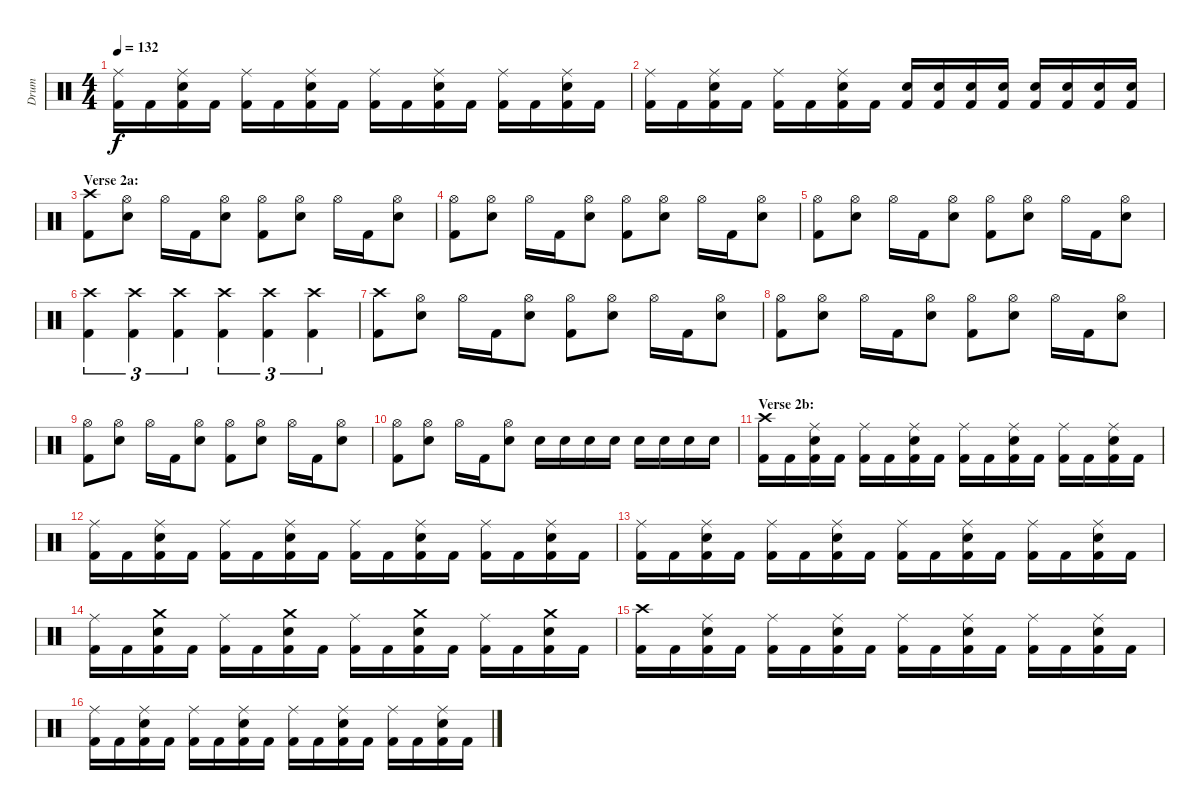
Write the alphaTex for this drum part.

\track ("Drum" "Drum") {instrument percussion}
\staff {score}
\articulation defaults
\ts (4 4)
\tempo 132
\clef neutral
\ks c
("Kick (hit) 2" "Ride (middle)").16{dy f} "Kick (hit) 2".16 ("Kick (hit) 2" "Snare (hit) 2" "Ride (middle)").16 "Kick (hit) 2".16 ("Kick (hit) 2" "Ride (middle)").16 "Kick (hit) 2".16 ("Kick (hit) 2" "Snare (hit) 2" "Ride (middle)").16 "Kick (hit) 2".16 ("Kick (hit) 2" "Ride (middle)").16 "Kick (hit) 2".16 ("Kick (hit) 2" "Snare (hit) 2" "Ride (middle)").16 "Kick (hit) 2".16 ("Kick (hit) 2" "Ride (middle)").16 "Kick (hit) 2".16 ("Kick (hit) 2" "Snare (hit) 2" "Ride (middle)").16 "Kick (hit) 2".16 |
("Kick (hit) 2" "Ride (middle)").16 "Kick (hit) 2".16 ("Kick (hit) 2" "Snare (hit) 2" "Ride (middle)").16 "Kick (hit) 2".16 ("Kick (hit) 2" "Ride (middle)").16 "Kick (hit) 2".16 ("Kick (hit) 2" "Snare (hit) 2" "Ride (middle)").16 "Kick (hit) 2".16 ("Kick (hit) 2" "Snare (hit) 2").16 ("Kick (hit) 2" "Snare (hit) 2").16 ("Kick (hit) 2" "Snare (hit) 2").16 ("Kick (hit) 2" "Snare (hit) 2").16 ("Kick (hit) 2" "Snare (hit) 2").16 ("Kick (hit) 2" "Snare (hit) 2").16 ("Kick (hit) 2" "Snare (hit) 2").16 ("Kick (hit) 2" "Snare (hit) 2").16 |
\section ("" "Verse 2a:")
("Kick (hit) 2" "Crash high (hit)").8 ("Snare (hit) 2" "Hi-Hat (open)").8 "Hi-Hat (open)".16 "Kick (hit) 2".16 ("Snare (hit) 2" "Hi-Hat (open)").8 ("Kick (hit) 2" "Hi-Hat (open)").8 ("Snare (hit) 2" "Hi-Hat (open)").8 "Hi-Hat (open)".16 "Kick (hit) 2".16 ("Snare (hit) 2" "Hi-Hat (open)").8 |
("Kick (hit) 2" "Hi-Hat (open)").8 ("Snare (hit) 2" "Hi-Hat (open)").8 "Hi-Hat (open)".16 "Kick (hit) 2".16 ("Snare (hit) 2" "Hi-Hat (open)").8 ("Kick (hit) 2" "Hi-Hat (open)").8 ("Snare (hit) 2" "Hi-Hat (open)").8 "Hi-Hat (open)".16 "Kick (hit) 2".16 ("Snare (hit) 2" "Hi-Hat (open)").8 |
("Kick (hit) 2" "Hi-Hat (open)").8 ("Snare (hit) 2" "Hi-Hat (open)").8 "Hi-Hat (open)".16 "Kick (hit) 2".16 ("Snare (hit) 2" "Hi-Hat (open)").8 ("Kick (hit) 2" "Hi-Hat (open)").8 ("Snare (hit) 2" "Hi-Hat (open)").8 "Hi-Hat (open)".16 "Kick (hit) 2".16 ("Snare (hit) 2" "Hi-Hat (open)").8 |
("Kick (hit) 2" "Crash high (hit)").4{tu (3 2)} ("Kick (hit) 2" "Crash high (hit)").4{tu (3 2)} ("Kick (hit) 2" "Crash high (hit)").4{tu (3 2)} ("Kick (hit) 2" "Crash high (hit)").4{tu (3 2)} ("Kick (hit) 2" "Crash high (hit)").4{tu (3 2)} ("Kick (hit) 2" "Crash high (hit)").4{tu (3 2)} |
("Kick (hit) 2" "Crash high (hit)").8 ("Snare (hit) 2" "Hi-Hat (open)").8 "Hi-Hat (open)".16 "Kick (hit) 2".16 ("Snare (hit) 2" "Hi-Hat (open)").8 ("Kick (hit) 2" "Hi-Hat (open)").8 ("Snare (hit) 2" "Hi-Hat (open)").8 "Hi-Hat (open)".16 "Kick (hit) 2".16 ("Snare (hit) 2" "Hi-Hat (open)").8 |
("Kick (hit) 2" "Hi-Hat (open)").8 ("Snare (hit) 2" "Hi-Hat (open)").8 "Hi-Hat (open)".16 "Kick (hit) 2".16 ("Snare (hit) 2" "Hi-Hat (open)").8 ("Kick (hit) 2" "Hi-Hat (open)").8 ("Snare (hit) 2" "Hi-Hat (open)").8 "Hi-Hat (open)".16 "Kick (hit) 2".16 ("Snare (hit) 2" "Hi-Hat (open)").8 |
("Kick (hit) 2" "Hi-Hat (open)").8 ("Snare (hit) 2" "Hi-Hat (open)").8 "Hi-Hat (open)".16 "Kick (hit) 2".16 ("Snare (hit) 2" "Hi-Hat (open)").8 ("Kick (hit) 2" "Hi-Hat (open)").8 ("Snare (hit) 2" "Hi-Hat (open)").8 "Hi-Hat (open)".16 "Kick (hit) 2".16 ("Snare (hit) 2" "Hi-Hat (open)").8 |
("Kick (hit) 2" "Hi-Hat (open)").8 ("Snare (hit) 2" "Hi-Hat (open)").8 "Hi-Hat (open)".16 "Kick (hit) 2".16 ("Snare (hit) 2" "Hi-Hat (open)").8 "Snare (hit) 2".16 "Snare (hit) 2".16 "Snare (hit) 2".16 "Snare (hit) 2".16 "Snare (hit) 2".16 "Snare (hit) 2".16 "Snare (hit) 2".16 "Snare (hit) 2".16 |
\section ("" "Verse 2b:")
("Kick (hit) 2" "Crash high (hit)").16 "Kick (hit) 2".16 ("Kick (hit) 2" "Snare (hit) 2" "Ride (middle)").16 "Kick (hit) 2".16 ("Kick (hit) 2" "Ride (middle)").16 "Kick (hit) 2".16 ("Kick (hit) 2" "Snare (hit) 2" "Ride (middle)").16 "Kick (hit) 2".16 ("Kick (hit) 2" "Ride (middle)").16 "Kick (hit) 2".16 ("Kick (hit) 2" "Snare (hit) 2" "Ride (middle)").16 "Kick (hit) 2".16 ("Kick (hit) 2" "Ride (middle)").16 "Kick (hit) 2".16 ("Kick (hit) 2" "Snare (hit) 2" "Ride (middle)").16 "Kick (hit) 2".16 |
("Kick (hit) 2" "Ride (middle)").16 "Kick (hit) 2".16 ("Kick (hit) 2" "Snare (hit) 2" "Ride (middle)").16 "Kick (hit) 2".16 ("Kick (hit) 2" "Ride (middle)").16 "Kick (hit) 2".16 ("Kick (hit) 2" "Snare (hit) 2" "Ride (middle)").16 "Kick (hit) 2".16 ("Kick (hit) 2" "Ride (middle)").16 "Kick (hit) 2".16 ("Kick (hit) 2" "Snare (hit) 2" "Ride (middle)").16 "Kick (hit) 2".16 ("Kick (hit) 2" "Ride (middle)").16 "Kick (hit) 2".16 ("Kick (hit) 2" "Snare (hit) 2" "Ride (middle)").16 "Kick (hit) 2".16 |
("Kick (hit) 2" "Ride (middle)").16 "Kick (hit) 2".16 ("Kick (hit) 2" "Snare (hit) 2" "Ride (middle)").16 "Kick (hit) 2".16 ("Kick (hit) 2" "Ride (middle)").16 "Kick (hit) 2".16 ("Kick (hit) 2" "Snare (hit) 2" "Ride (middle)").16 "Kick (hit) 2".16 ("Kick (hit) 2" "Ride (middle)").16 "Kick (hit) 2".16 ("Kick (hit) 2" "Snare (hit) 2" "Ride (middle)").16 "Kick (hit) 2".16 ("Kick (hit) 2" "Ride (middle)").16 "Kick (hit) 2".16 ("Kick (hit) 2" "Snare (hit) 2" "Ride (middle)").16 "Kick (hit) 2".16 |
("Kick (hit) 2" "Ride (middle)").16 "Kick (hit) 2".16 ("Kick (hit) 2" "Snare (hit) 2" "Crash medium (hit)").16 "Kick (hit) 2".16 ("Kick (hit) 2" "Ride (middle)").16 "Kick (hit) 2".16 ("Kick (hit) 2" "Snare (hit) 2" "Crash medium (hit)").16 "Kick (hit) 2".16 ("Kick (hit) 2" "Ride (middle)").16 "Kick (hit) 2".16 ("Kick (hit) 2" "Snare (hit) 2" "Crash medium (hit)").16 "Kick (hit) 2".16 ("Kick (hit) 2" "Ride (middle)").16 "Kick (hit) 2".16 ("Kick (hit) 2" "Snare (hit) 2" "Crash medium (hit)").16 "Kick (hit) 2".16 |
("Kick (hit) 2" "Crash high (hit)").16 "Kick (hit) 2".16 ("Kick (hit) 2" "Snare (hit) 2" "Ride (middle)").16 "Kick (hit) 2".16 ("Kick (hit) 2" "Ride (middle)").16 "Kick (hit) 2".16 ("Kick (hit) 2" "Snare (hit) 2" "Ride (middle)").16 "Kick (hit) 2".16 ("Kick (hit) 2" "Ride (middle)").16 "Kick (hit) 2".16 ("Kick (hit) 2" "Snare (hit) 2" "Ride (middle)").16 "Kick (hit) 2".16 ("Kick (hit) 2" "Ride (middle)").16 "Kick (hit) 2".16 ("Kick (hit) 2" "Snare (hit) 2" "Ride (middle)").16 "Kick (hit) 2".16 |
("Kick (hit) 2" "Ride (middle)").16 "Kick (hit) 2".16 ("Kick (hit) 2" "Snare (hit) 2" "Ride (middle)").16 "Kick (hit) 2".16 ("Kick (hit) 2" "Ride (middle)").16 "Kick (hit) 2".16 ("Kick (hit) 2" "Snare (hit) 2" "Ride (middle)").16 "Kick (hit) 2".16 ("Kick (hit) 2" "Ride (middle)").16 "Kick (hit) 2".16 ("Kick (hit) 2" "Snare (hit) 2" "Ride (middle)").16 "Kick (hit) 2".16 ("Kick (hit) 2" "Ride (middle)").16 "Kick (hit) 2".16 ("Kick (hit) 2" "Snare (hit) 2" "Ride (middle)").16 "Kick (hit) 2".16
